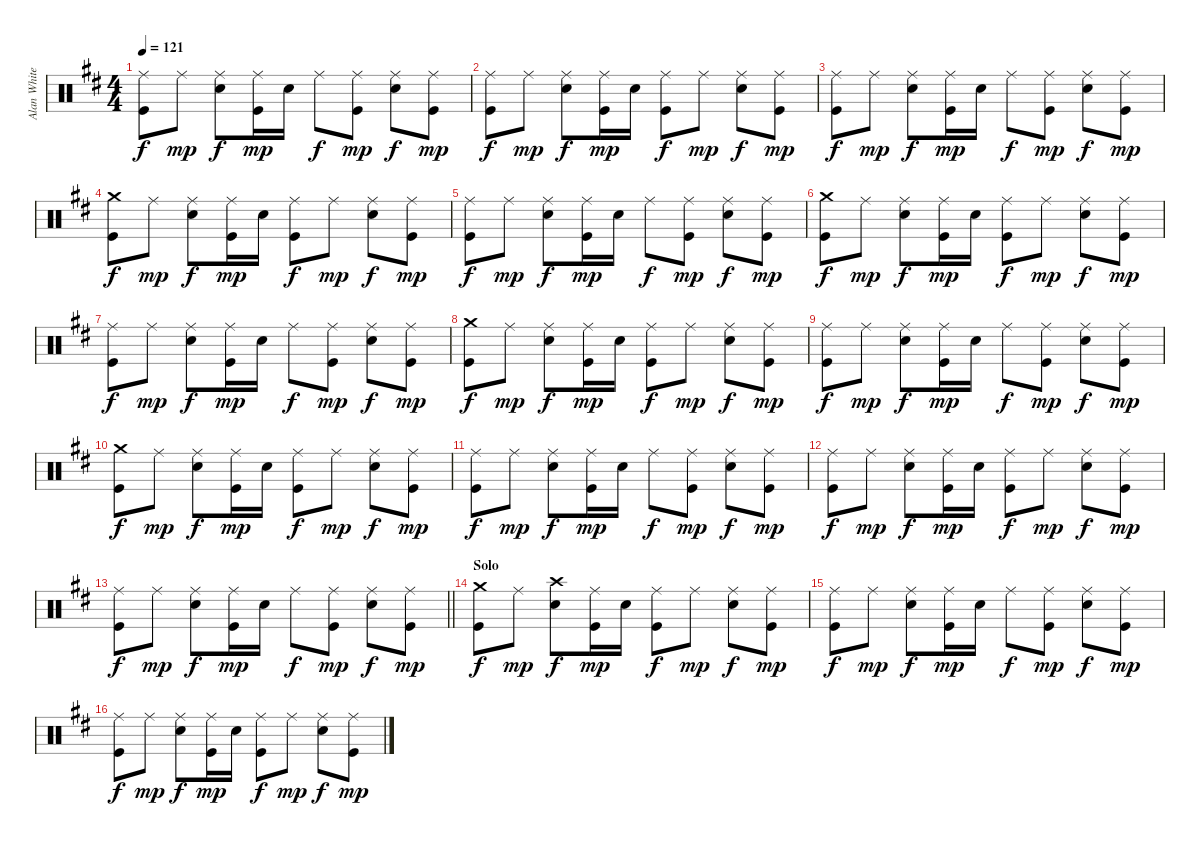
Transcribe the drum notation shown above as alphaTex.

\track ("Alan White" "Alan White") {instrument percussion}
\staff {score}
\articulation defaults
\ts (4 4)
\tempo 121
\clef neutral
\ks d
("Ride (middle)" "Kick (hit)").8{dy f} "Ride (middle)".8{dy mp} ("Ride (middle)" "Electric Snare (hit)").8{dy f} ("Ride (middle)" "Kick (hit)").16{dy mp} "Electric Snare (hit)".16 "Ride (middle)".8{dy f} ("Ride (middle)" "Kick (hit)").8{dy mp} ("Ride (middle)" "Electric Snare (hit)").8{dy f} ("Ride (middle)" "Kick (hit)").8{dy mp} |
("Ride (middle)" "Kick (hit)").8{dy f} "Ride (middle)".8{dy mp} ("Ride (middle)" "Electric Snare (hit)").8{dy f} ("Ride (middle)" "Kick (hit)").16{dy mp} "Electric Snare (hit)".16 ("Ride (middle)" "Kick (hit)").8{dy f} "Ride (middle)".8{dy mp} ("Ride (middle)" "Electric Snare (hit)").8{dy f} ("Ride (middle)" "Kick (hit)").8{dy mp} |
("Ride (middle)" "Kick (hit)").8{dy f} "Ride (middle)".8{dy mp} ("Ride (middle)" "Electric Snare (hit)").8{dy f} ("Ride (middle)" "Kick (hit)").16{dy mp} "Electric Snare (hit)".16 "Ride (middle)".8{dy f} ("Ride (middle)" "Kick (hit)").8{dy mp} ("Ride (middle)" "Electric Snare (hit)").8{dy f} ("Ride (middle)" "Kick (hit)").8{dy mp} |
("Crash medium (hit)" "Kick (hit)").8{dy f} "Ride (middle)".8{dy mp} ("Ride (middle)" "Electric Snare (hit)").8{dy f} ("Ride (middle)" "Kick (hit)").16{dy mp} "Electric Snare (hit)".16 ("Ride (middle)" "Kick (hit)").8{dy f} "Ride (middle)".8{dy mp} ("Ride (middle)" "Electric Snare (hit)").8{dy f} ("Ride (middle)" "Kick (hit)").8{dy mp} |
("Ride (middle)" "Kick (hit)").8{dy f} "Ride (middle)".8{dy mp} ("Ride (middle)" "Electric Snare (hit)").8{dy f} ("Ride (middle)" "Kick (hit)").16{dy mp} "Electric Snare (hit)".16 "Ride (middle)".8{dy f} ("Ride (middle)" "Kick (hit)").8{dy mp} ("Ride (middle)" "Electric Snare (hit)").8{dy f} ("Ride (middle)" "Kick (hit)").8{dy mp} |
("Crash medium (hit)" "Kick (hit)").8{dy f} "Ride (middle)".8{dy mp} ("Ride (middle)" "Electric Snare (hit)").8{dy f} ("Ride (middle)" "Kick (hit)").16{dy mp} "Electric Snare (hit)".16 ("Ride (middle)" "Kick (hit)").8{dy f} "Ride (middle)".8{dy mp} ("Ride (middle)" "Electric Snare (hit)").8{dy f} ("Ride (middle)" "Kick (hit)").8{dy mp} |
("Ride (middle)" "Kick (hit)").8{dy f} "Ride (middle)".8{dy mp} ("Ride (middle)" "Electric Snare (hit)").8{dy f} ("Ride (middle)" "Kick (hit)").16{dy mp} "Electric Snare (hit)".16 "Ride (middle)".8{dy f} ("Ride (middle)" "Kick (hit)").8{dy mp} ("Ride (middle)" "Electric Snare (hit)").8{dy f} ("Ride (middle)" "Kick (hit)").8{dy mp} |
("Crash medium (hit)" "Kick (hit)").8{dy f} "Ride (middle)".8{dy mp} ("Ride (middle)" "Electric Snare (hit)").8{dy f} ("Ride (middle)" "Kick (hit)").16{dy mp} "Electric Snare (hit)".16 ("Ride (middle)" "Kick (hit)").8{dy f} "Ride (middle)".8{dy mp} ("Ride (middle)" "Electric Snare (hit)").8{dy f} ("Ride (middle)" "Kick (hit)").8{dy mp} |
("Ride (middle)" "Kick (hit)").8{dy f} "Ride (middle)".8{dy mp} ("Ride (middle)" "Electric Snare (hit)").8{dy f} ("Ride (middle)" "Kick (hit)").16{dy mp} "Electric Snare (hit)".16 "Ride (middle)".8{dy f} ("Ride (middle)" "Kick (hit)").8{dy mp} ("Ride (middle)" "Electric Snare (hit)").8{dy f} ("Ride (middle)" "Kick (hit)").8{dy mp} |
("Crash medium (hit)" "Kick (hit)").8{dy f} "Ride (middle)".8{dy mp} ("Ride (middle)" "Electric Snare (hit)").8{dy f} ("Ride (middle)" "Kick (hit)").16{dy mp} "Electric Snare (hit)".16 ("Ride (middle)" "Kick (hit)").8{dy f} "Ride (middle)".8{dy mp} ("Ride (middle)" "Electric Snare (hit)").8{dy f} ("Ride (middle)" "Kick (hit)").8{dy mp} |
("Ride (middle)" "Kick (hit)").8{dy f} "Ride (middle)".8{dy mp} ("Ride (middle)" "Electric Snare (hit)").8{dy f} ("Ride (middle)" "Kick (hit)").16{dy mp} "Electric Snare (hit)".16 "Ride (middle)".8{dy f} ("Ride (middle)" "Kick (hit)").8{dy mp} ("Ride (middle)" "Electric Snare (hit)").8{dy f} ("Ride (middle)" "Kick (hit)").8{dy mp} |
("Ride (middle)" "Kick (hit)").8{dy f} "Ride (middle)".8{dy mp} ("Ride (middle)" "Electric Snare (hit)").8{dy f} ("Ride (middle)" "Kick (hit)").16{dy mp} "Electric Snare (hit)".16 ("Ride (middle)" "Kick (hit)").8{dy f} "Ride (middle)".8{dy mp} ("Ride (middle)" "Electric Snare (hit)").8{dy f} ("Ride (middle)" "Kick (hit)").8{dy mp} |
\barLineRight lightlight
("Ride (middle)" "Kick (hit)").8{dy f} "Ride (middle)".8{dy mp} ("Ride (middle)" "Electric Snare (hit)").8{dy f} ("Ride (middle)" "Kick (hit)").16{dy mp} "Electric Snare (hit)".16 "Ride (middle)".8{dy f} ("Ride (middle)" "Kick (hit)").8{dy mp} ("Ride (middle)" "Electric Snare (hit)").8{dy f} ("Ride (middle)" "Kick (hit)").8{dy mp} |
\section ("" "Solo")
("Crash medium (hit)" "Kick (hit)").8{dy f} "Ride (middle)".8{dy mp} ("Crash high (hit)" "Electric Snare (hit)").8{dy f} ("Ride (middle)" "Kick (hit)").16{dy mp} "Electric Snare (hit)".16 ("Ride (middle)" "Kick (hit)").8{dy f} "Ride (middle)".8{dy mp} ("Ride (middle)" "Electric Snare (hit)").8{dy f} ("Ride (middle)" "Kick (hit)").8{dy mp} |
("Ride (middle)" "Kick (hit)").8{dy f} "Ride (middle)".8{dy mp} ("Ride (middle)" "Electric Snare (hit)").8{dy f} ("Ride (middle)" "Kick (hit)").16{dy mp} "Electric Snare (hit)".16 "Ride (middle)".8{dy f} ("Ride (middle)" "Kick (hit)").8{dy mp} ("Ride (middle)" "Electric Snare (hit)").8{dy f} ("Ride (middle)" "Kick (hit)").8{dy mp} |
("Ride (middle)" "Kick (hit)").8{dy f} "Ride (middle)".8{dy mp} ("Ride (middle)" "Electric Snare (hit)").8{dy f} ("Ride (middle)" "Kick (hit)").16{dy mp} "Electric Snare (hit)".16 ("Ride (middle)" "Kick (hit)").8{dy f} "Ride (middle)".8{dy mp} ("Ride (middle)" "Electric Snare (hit)").8{dy f} ("Ride (middle)" "Kick (hit)").8{dy mp}
